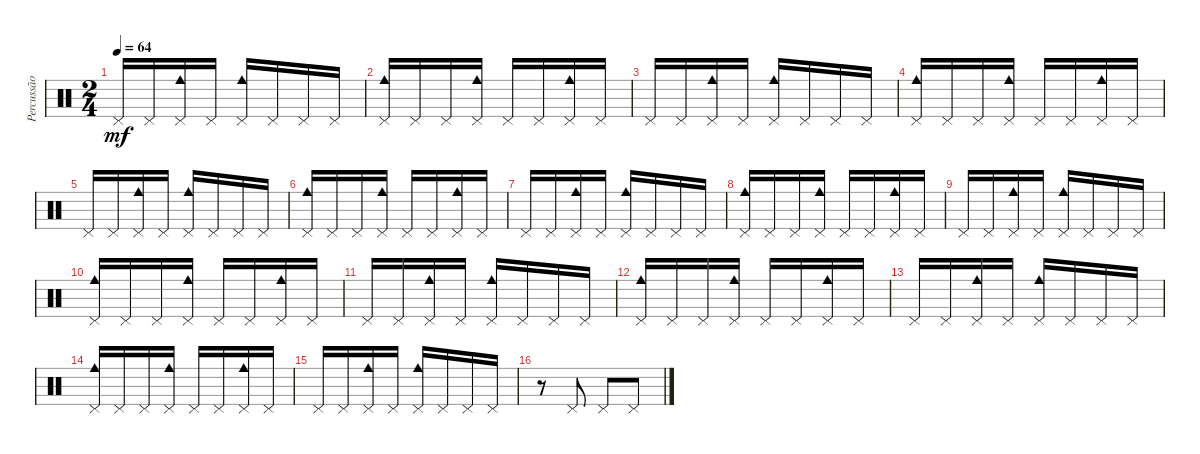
\track ("Percussão" "Percussão") {instrument percussion}
\staff {score}
\articulation defaults
\ts (2 4)
\tempo 64
\clef neutral
\ks c "Pedal Hi-Hat (hit)".16{dy mf} "Pedal Hi-Hat (hit)".16
("Pedal Hi-Hat (hit)" "Cowbell medium (hit)").16 "Pedal Hi-Hat (hit)".16 ("Pedal Hi-Hat (hit)" "Cowbell medium (hit)").16 "Pedal Hi-Hat (hit)".16 "Pedal Hi-Hat (hit)".16 "Pedal Hi-Hat (hit)".16 |
("Cowbell medium (hit)" "Pedal Hi-Hat (hit)").16 "Pedal Hi-Hat (hit)".16 "Pedal Hi-Hat (hit)".16 ("Pedal Hi-Hat (hit)" "Cowbell medium (hit)").16 "Pedal Hi-Hat (hit)".16 "Pedal Hi-Hat (hit)".16 ("Pedal Hi-Hat (hit)" "Cowbell medium (hit)").16 "Pedal Hi-Hat (hit)".16 |
"Pedal Hi-Hat (hit)".16 "Pedal Hi-Hat (hit)".16 ("Pedal Hi-Hat (hit)" "Cowbell medium (hit)").16 "Pedal Hi-Hat (hit)".16 ("Pedal Hi-Hat (hit)" "Cowbell medium (hit)").16 "Pedal Hi-Hat (hit)".16 "Pedal Hi-Hat (hit)".16 "Pedal Hi-Hat (hit)".16 |
("Pedal Hi-Hat (hit)" "Cowbell medium (hit)").16 "Pedal Hi-Hat (hit)".16 "Pedal Hi-Hat (hit)".16 ("Pedal Hi-Hat (hit)" "Cowbell medium (hit)").16 "Pedal Hi-Hat (hit)".16 "Pedal Hi-Hat (hit)".16 ("Pedal Hi-Hat (hit)" "Cowbell medium (hit)").16 "Pedal Hi-Hat (hit)".16 |
"Pedal Hi-Hat (hit)".16 "Pedal Hi-Hat (hit)".16 ("Pedal Hi-Hat (hit)" "Cowbell medium (hit)").16 "Pedal Hi-Hat (hit)".16 ("Pedal Hi-Hat (hit)" "Cowbell medium (hit)").16 "Pedal Hi-Hat (hit)".16 "Pedal Hi-Hat (hit)".16 "Pedal Hi-Hat (hit)".16 |
("Pedal Hi-Hat (hit)" "Cowbell medium (hit)").16 "Pedal Hi-Hat (hit)".16 "Pedal Hi-Hat (hit)".16 ("Pedal Hi-Hat (hit)" "Cowbell medium (hit)").16 "Pedal Hi-Hat (hit)".16 "Pedal Hi-Hat (hit)".16 ("Pedal Hi-Hat (hit)" "Cowbell medium (hit)").16 "Pedal Hi-Hat (hit)".16 |
"Pedal Hi-Hat (hit)".16 "Pedal Hi-Hat (hit)".16 ("Pedal Hi-Hat (hit)" "Cowbell medium (hit)").16 "Pedal Hi-Hat (hit)".16 ("Pedal Hi-Hat (hit)" "Cowbell medium (hit)").16 "Pedal Hi-Hat (hit)".16 "Pedal Hi-Hat (hit)".16 "Pedal Hi-Hat (hit)".16 |
("Pedal Hi-Hat (hit)" "Cowbell medium (hit)").16 "Pedal Hi-Hat (hit)".16 "Pedal Hi-Hat (hit)".16 ("Pedal Hi-Hat (hit)" "Cowbell medium (hit)").16 "Pedal Hi-Hat (hit)".16 "Pedal Hi-Hat (hit)".16 ("Cowbell medium (hit)" "Pedal Hi-Hat (hit)").16 "Pedal Hi-Hat (hit)".16 |
"Pedal Hi-Hat (hit)".16 "Pedal Hi-Hat (hit)".16 ("Pedal Hi-Hat (hit)" "Cowbell medium (hit)").16 "Pedal Hi-Hat (hit)".16 ("Pedal Hi-Hat (hit)" "Cowbell medium (hit)").16 "Pedal Hi-Hat (hit)".16 "Pedal Hi-Hat (hit)".16 "Pedal Hi-Hat (hit)".16 |
("Cowbell medium (hit)" "Pedal Hi-Hat (hit)").16 "Pedal Hi-Hat (hit)".16 "Pedal Hi-Hat (hit)".16 ("Pedal Hi-Hat (hit)" "Cowbell medium (hit)").16 "Pedal Hi-Hat (hit)".16 "Pedal Hi-Hat (hit)".16 ("Pedal Hi-Hat (hit)" "Cowbell medium (hit)").16 "Pedal Hi-Hat (hit)".16 |
"Pedal Hi-Hat (hit)".16 "Pedal Hi-Hat (hit)".16 ("Pedal Hi-Hat (hit)" "Cowbell medium (hit)").16 "Pedal Hi-Hat (hit)".16 ("Pedal Hi-Hat (hit)" "Cowbell medium (hit)").16 "Pedal Hi-Hat (hit)".16 "Pedal Hi-Hat (hit)".16 "Pedal Hi-Hat (hit)".16 |
("Pedal Hi-Hat (hit)" "Cowbell medium (hit)").16 "Pedal Hi-Hat (hit)".16 "Pedal Hi-Hat (hit)".16 ("Pedal Hi-Hat (hit)" "Cowbell medium (hit)").16 "Pedal Hi-Hat (hit)".16 "Pedal Hi-Hat (hit)".16 ("Pedal Hi-Hat (hit)" "Cowbell medium (hit)").16 "Pedal Hi-Hat (hit)".16 |
"Pedal Hi-Hat (hit)".16 "Pedal Hi-Hat (hit)".16 ("Pedal Hi-Hat (hit)" "Cowbell medium (hit)").16 "Pedal Hi-Hat (hit)".16 ("Pedal Hi-Hat (hit)" "Cowbell medium (hit)").16 "Pedal Hi-Hat (hit)".16 "Pedal Hi-Hat (hit)".16 "Pedal Hi-Hat (hit)".16 |
("Pedal Hi-Hat (hit)" "Cowbell medium (hit)").16 "Pedal Hi-Hat (hit)".16 "Pedal Hi-Hat (hit)".16 ("Pedal Hi-Hat (hit)" "Cowbell medium (hit)").16 "Pedal Hi-Hat (hit)".16 "Pedal Hi-Hat (hit)".16 ("Pedal Hi-Hat (hit)" "Cowbell medium (hit)").16 "Pedal Hi-Hat (hit)".16 |
"Pedal Hi-Hat (hit)".16 "Pedal Hi-Hat (hit)".16 ("Pedal Hi-Hat (hit)" "Cowbell medium (hit)").16 "Pedal Hi-Hat (hit)".16 ("Pedal Hi-Hat (hit)" "Cowbell medium (hit)").16 "Pedal Hi-Hat (hit)".16 "Pedal Hi-Hat (hit)".16 "Pedal Hi-Hat (hit)".16 |
r.8 "Pedal Hi-Hat (hit)".8 "Pedal Hi-Hat (hit)".8 "Pedal Hi-Hat (hit)".8
